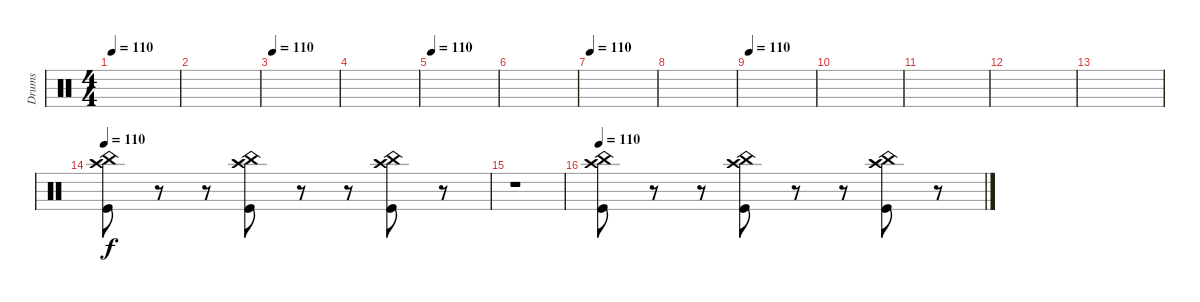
\track ("Drums" "Drums") {instrument percussion}
\staff {score}
\articulation defaults
\ts (4 4)
\tempo 110
\clef neutral
\ks c
|
|
\tempo 110
|
|
\tempo 110
|
|
\tempo 110
|
|
\tempo 110
|
|
|
|
|
\tempo 110
("Crash high (hit)" "China (hit)" "Kick (hit)").8 r.8 r.8 ("Crash high (hit)" "China (hit)" "Kick (hit)").8 r.8 r.8 ("Crash high (hit)" "China (hit)" "Kick (hit)").8 r.8 |
r.1 |
\tempo 110
("Crash high (hit)" "China (hit)" "Kick (hit)").8 r.8 r.8 ("Crash high (hit)" "China (hit)" "Kick (hit)").8 r.8 r.8 ("Crash high (hit)" "China (hit)" "Kick (hit)").8 r.8
